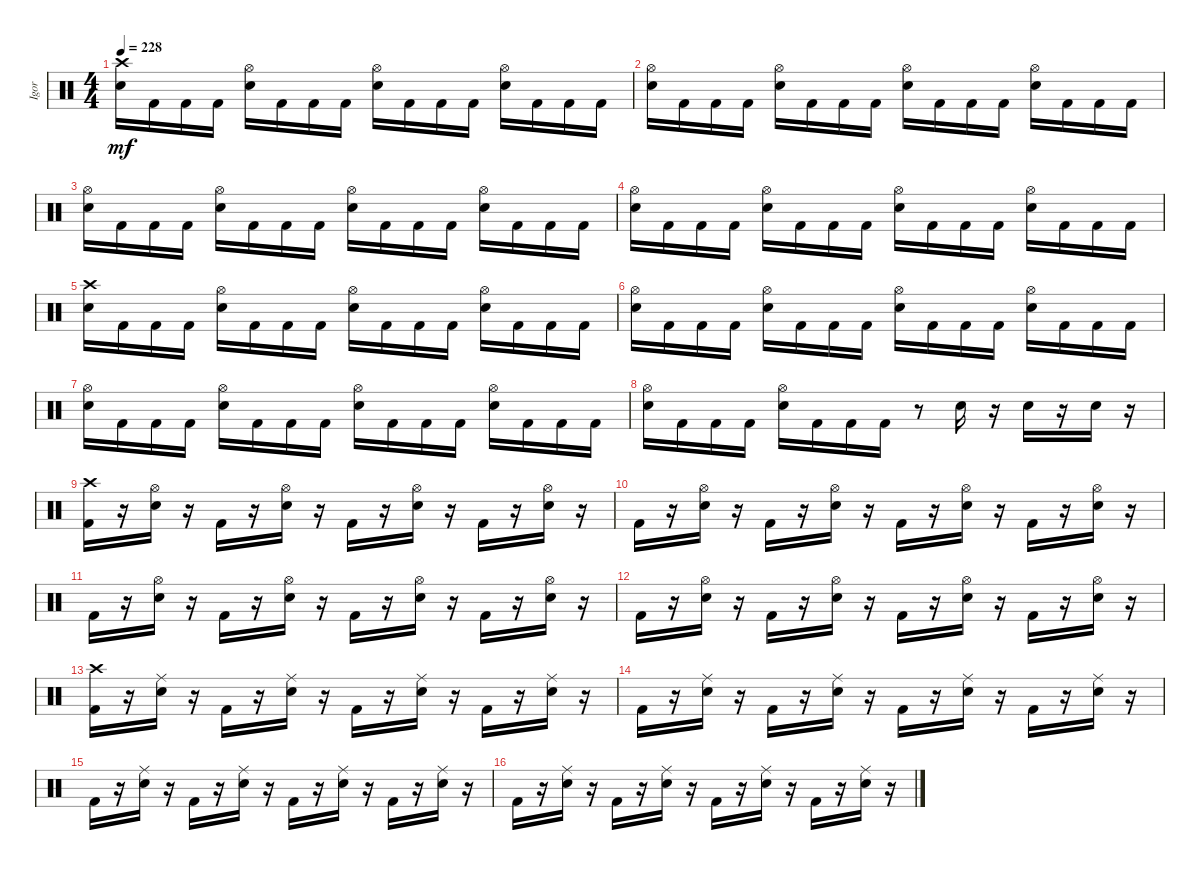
\track ("Igor" "Igor") {instrument percussion}
\staff {score}
\articulation defaults
\ts (4 4)
\tempo 228
\clef neutral
\ks c
("Snare (hit) 2" "Crash high (hit)").16{dy mf} "Kick (hit) 2".16 "Kick (hit) 2".16 "Kick (hit) 2".16 ("Snare (hit) 2" "Hi-Hat (open)").16 "Kick (hit) 2".16 "Kick (hit) 2".16 "Kick (hit) 2".16 ("Snare (hit) 2" "Hi-Hat (open)").16 "Kick (hit) 2".16 "Kick (hit) 2".16 "Kick (hit) 2".16 ("Snare (hit) 2" "Hi-Hat (open)").16 "Kick (hit) 2".16 "Kick (hit) 2".16 "Kick (hit) 2".16 |
("Snare (hit) 2" "Hi-Hat (open)").16 "Kick (hit) 2".16 "Kick (hit) 2".16 "Kick (hit) 2".16 ("Snare (hit) 2" "Hi-Hat (open)").16 "Kick (hit) 2".16 "Kick (hit) 2".16 "Kick (hit) 2".16 ("Snare (hit) 2" "Hi-Hat (open)").16 "Kick (hit) 2".16 "Kick (hit) 2".16 "Kick (hit) 2".16 ("Snare (hit) 2" "Hi-Hat (open)").16 "Kick (hit) 2".16 "Kick (hit) 2".16 "Kick (hit) 2".16 |
("Snare (hit) 2" "Hi-Hat (open)").16 "Kick (hit) 2".16 "Kick (hit) 2".16 "Kick (hit) 2".16 ("Snare (hit) 2" "Hi-Hat (open)").16 "Kick (hit) 2".16 "Kick (hit) 2".16 "Kick (hit) 2".16 ("Snare (hit) 2" "Hi-Hat (open)").16 "Kick (hit) 2".16 "Kick (hit) 2".16 "Kick (hit) 2".16 ("Snare (hit) 2" "Hi-Hat (open)").16 "Kick (hit) 2".16 "Kick (hit) 2".16 "Kick (hit) 2".16 |
("Snare (hit) 2" "Hi-Hat (open)").16 "Kick (hit) 2".16 "Kick (hit) 2".16 "Kick (hit) 2".16 ("Snare (hit) 2" "Hi-Hat (open)").16 "Kick (hit) 2".16 "Kick (hit) 2".16 "Kick (hit) 2".16 ("Snare (hit) 2" "Hi-Hat (open)").16 "Kick (hit) 2".16 "Kick (hit) 2".16 "Kick (hit) 2".16 ("Snare (hit) 2" "Hi-Hat (open)").16 "Kick (hit) 2".16 "Kick (hit) 2".16 "Kick (hit) 2".16 |
("Snare (hit) 2" "Crash high (hit)").16 "Kick (hit) 2".16 "Kick (hit) 2".16 "Kick (hit) 2".16 ("Snare (hit) 2" "Hi-Hat (open)").16 "Kick (hit) 2".16 "Kick (hit) 2".16 "Kick (hit) 2".16 ("Snare (hit) 2" "Hi-Hat (open)").16 "Kick (hit) 2".16 "Kick (hit) 2".16 "Kick (hit) 2".16 ("Snare (hit) 2" "Hi-Hat (open)").16 "Kick (hit) 2".16 "Kick (hit) 2".16 "Kick (hit) 2".16 |
("Snare (hit) 2" "Hi-Hat (open)").16 "Kick (hit) 2".16 "Kick (hit) 2".16 "Kick (hit) 2".16 ("Snare (hit) 2" "Hi-Hat (open)").16 "Kick (hit) 2".16 "Kick (hit) 2".16 "Kick (hit) 2".16 ("Snare (hit) 2" "Hi-Hat (open)").16 "Kick (hit) 2".16 "Kick (hit) 2".16 "Kick (hit) 2".16 ("Snare (hit) 2" "Hi-Hat (open)").16 "Kick (hit) 2".16 "Kick (hit) 2".16 "Kick (hit) 2".16 |
("Snare (hit) 2" "Hi-Hat (open)").16 "Kick (hit) 2".16 "Kick (hit) 2".16 "Kick (hit) 2".16 ("Snare (hit) 2" "Hi-Hat (open)").16 "Kick (hit) 2".16 "Kick (hit) 2".16 "Kick (hit) 2".16 ("Snare (hit) 2" "Hi-Hat (open)").16 "Kick (hit) 2".16 "Kick (hit) 2".16 "Kick (hit) 2".16 ("Snare (hit) 2" "Hi-Hat (open)").16 "Kick (hit) 2".16 "Kick (hit) 2".16 "Kick (hit) 2".16 |
("Snare (hit) 2" "Hi-Hat (open)").16 "Kick (hit) 2".16 "Kick (hit) 2".16 "Kick (hit) 2".16 ("Snare (hit) 2" "Hi-Hat (open)").16 "Kick (hit) 2".16 "Kick (hit) 2".16 "Kick (hit) 2".16 r.8 "Snare (hit) 2".16 r.16 "Snare (hit) 2".16 r.16 "Snare (hit) 2".16 r.16 |
("Kick (hit) 2" "Crash high (hit)").16 r.16 ("Snare (hit) 2" "Hi-Hat (open)").16 r.16 "Kick (hit) 2".16 r.16 ("Snare (hit) 2" "Hi-Hat (open)").16 r.16 "Kick (hit) 2".16 r.16 ("Snare (hit) 2" "Hi-Hat (open)").16 r.16 "Kick (hit) 2".16 r.16 ("Snare (hit) 2" "Hi-Hat (open)").16 r.16 |
"Kick (hit) 2".16 r.16 ("Snare (hit) 2" "Hi-Hat (open)").16 r.16 "Kick (hit) 2".16 r.16 ("Snare (hit) 2" "Hi-Hat (open)").16 r.16 "Kick (hit) 2".16 r.16 ("Snare (hit) 2" "Hi-Hat (open)").16 r.16 "Kick (hit) 2".16 r.16 ("Snare (hit) 2" "Hi-Hat (open)").16 r.16 |
"Kick (hit) 2".16 r.16 ("Snare (hit) 2" "Hi-Hat (open)").16 r.16 "Kick (hit) 2".16 r.16 ("Snare (hit) 2" "Hi-Hat (open)").16 r.16 "Kick (hit) 2".16 r.16 ("Snare (hit) 2" "Hi-Hat (open)").16 r.16 "Kick (hit) 2".16 r.16 ("Snare (hit) 2" "Hi-Hat (open)").16 r.16 |
"Kick (hit) 2".16 r.16 ("Snare (hit) 2" "Hi-Hat (open)").16 r.16 "Kick (hit) 2".16 r.16 ("Snare (hit) 2" "Hi-Hat (open)").16 r.16 "Kick (hit) 2".16 r.16 ("Snare (hit) 2" "Hi-Hat (open)").16 r.16 "Kick (hit) 2".16 r.16 ("Snare (hit) 2" "Hi-Hat (open)").16 r.16 |
("Kick (hit) 2" "Crash high (hit)").16 r.16 ("Snare (hit) 2" "Ride (middle)").16 r.16 "Kick (hit) 2".16 r.16 ("Snare (hit) 2" "Ride (middle)").16 r.16 "Kick (hit) 2".16 r.16 ("Snare (hit) 2" "Ride (middle)").16 r.16 "Kick (hit) 2".16 r.16 ("Snare (hit) 2" "Ride (middle)").16 r.16 |
"Kick (hit) 2".16 r.16 ("Snare (hit) 2" "Ride (middle)").16 r.16 "Kick (hit) 2".16 r.16 ("Snare (hit) 2" "Ride (middle)").16 r.16 "Kick (hit) 2".16 r.16 ("Snare (hit) 2" "Ride (middle)").16 r.16 "Kick (hit) 2".16 r.16 ("Snare (hit) 2" "Ride (middle)").16 r.16 |
"Kick (hit) 2".16 r.16 ("Snare (hit) 2" "Ride (middle)").16 r.16 "Kick (hit) 2".16 r.16 ("Snare (hit) 2" "Ride (middle)").16 r.16 "Kick (hit) 2".16 r.16 ("Snare (hit) 2" "Ride (middle)").16 r.16 "Kick (hit) 2".16 r.16 ("Snare (hit) 2" "Ride (middle)").16 r.16 |
"Kick (hit) 2".16 r.16 ("Snare (hit) 2" "Ride (middle)").16 r.16 "Kick (hit) 2".16 r.16 ("Snare (hit) 2" "Ride (middle)").16 r.16 "Kick (hit) 2".16 r.16 ("Snare (hit) 2" "Ride (middle)").16 r.16 "Kick (hit) 2".16 r.16 ("Snare (hit) 2" "Ride (middle)").16 r.16
